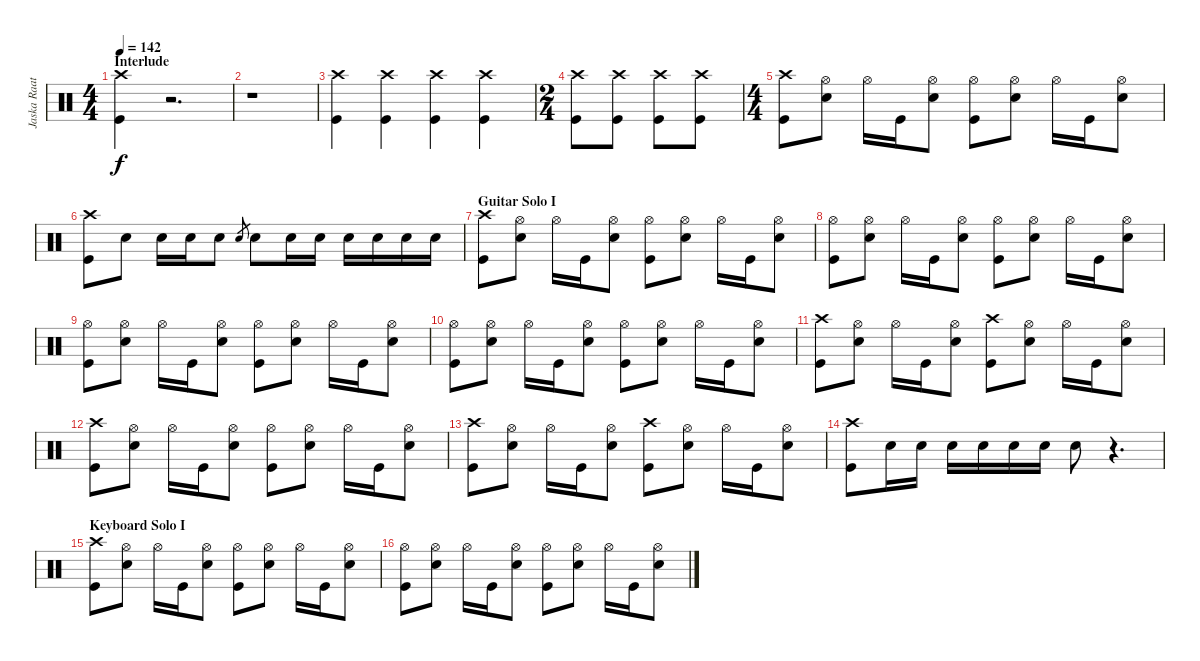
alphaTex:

\track ("Jaska Raatikainen" "Jaska Raat") {instrument percussion}
\staff {score}
\articulation defaults
\ts (4 4)
\section ("" "Interlude")
\tempo 142
\clef neutral
\ks c
("Crash high (hit)" "Kick (hit)").4{dy f} r.2{d} |
r.1 |
("Crash high (hit)" "Kick (hit)").4 ("Crash high (hit)" "Kick (hit)").4 ("Crash high (hit)" "Kick (hit)").4 ("Crash high (hit)" "Kick (hit)").4 |
\ts (2 4)
("Crash high (hit)" "Kick (hit)").8 ("Crash high (hit)" "Kick (hit)").8 ("Crash high (hit)" "Kick (hit)").8 ("Crash high (hit)" "Kick (hit)").8 |
\ts (4 4)
("Crash high (hit)" "Kick (hit)").8 ("Hi-Hat (open)" "Snare (hit) 2").8 "Hi-Hat (open)".16 "Kick (hit)".16 ("Hi-Hat (open)" "Snare (hit) 2").8 ("Hi-Hat (open)" "Kick (hit)").8 ("Hi-Hat (open)" "Snare (hit) 2").8 "Hi-Hat (open)".16 "Kick (hit)".16 ("Hi-Hat (open)" "Snare (hit) 2").8 |
("Crash high (hit)" "Kick (hit)").8 "Snare (hit) 2".8 "Snare (hit) 2".16 "Snare (hit) 2".16 "Snare (hit) 2".8 "Snare (hit) 2".8{gr} "Snare (hit) 2".8 "Snare (hit) 2".16 "Snare (hit) 2".16 "Snare (hit) 2".16 "Snare (hit) 2".16 "Snare (hit) 2".16 "Snare (hit) 2".16 |
\section ("" "Guitar Solo I")
("Crash high (hit)" "Kick (hit)").8 ("Hi-Hat (open)" "Snare (hit) 2").8 "Hi-Hat (open)".16 "Kick (hit)".16 ("Hi-Hat (open)" "Snare (hit) 2").8 ("Hi-Hat (open)" "Kick (hit)").8 ("Hi-Hat (open)" "Snare (hit) 2").8 "Hi-Hat (open)".16 "Kick (hit)".16 ("Hi-Hat (open)" "Snare (hit) 2").8 |
("Hi-Hat (open)" "Kick (hit)").8 ("Hi-Hat (open)" "Snare (hit) 2").8 "Hi-Hat (open)".16 "Kick (hit)".16 ("Hi-Hat (open)" "Snare (hit) 2").8 ("Hi-Hat (open)" "Kick (hit)").8 ("Hi-Hat (open)" "Snare (hit) 2").8 "Hi-Hat (open)".16 "Kick (hit)".16 ("Hi-Hat (open)" "Snare (hit) 2").8 |
("Hi-Hat (open)" "Kick (hit)").8 ("Hi-Hat (open)" "Snare (hit) 2").8 "Hi-Hat (open)".16 "Kick (hit)".16 ("Hi-Hat (open)" "Snare (hit) 2").8 ("Hi-Hat (open)" "Kick (hit)").8 ("Hi-Hat (open)" "Snare (hit) 2").8 "Hi-Hat (open)".16 "Kick (hit)".16 ("Hi-Hat (open)" "Snare (hit) 2").8 |
("Hi-Hat (open)" "Kick (hit)").8 ("Hi-Hat (open)" "Snare (hit) 2").8 "Hi-Hat (open)".16 "Kick (hit)".16 ("Hi-Hat (open)" "Snare (hit) 2").8 ("Hi-Hat (open)" "Kick (hit)").8 ("Hi-Hat (open)" "Snare (hit) 2").8 "Hi-Hat (open)".16 "Kick (hit)".16 ("Hi-Hat (open)" "Snare (hit) 2").8 |
("Crash high (hit)" "Kick (hit)").8 ("Hi-Hat (open)" "Snare (hit) 2").8 "Hi-Hat (open)".16 "Kick (hit)".16 ("Hi-Hat (open)" "Snare (hit) 2").8 ("Crash high (hit)" "Kick (hit)").8 ("Hi-Hat (open)" "Snare (hit) 2").8 "Hi-Hat (open)".16 "Kick (hit)".16 ("Hi-Hat (open)" "Snare (hit) 2").8 |
("Crash high (hit)" "Kick (hit)").8 ("Hi-Hat (open)" "Snare (hit) 2").8 "Hi-Hat (open)".16 "Kick (hit)".16 ("Hi-Hat (open)" "Snare (hit) 2").8 ("Hi-Hat (open)" "Kick (hit)").8 ("Hi-Hat (open)" "Snare (hit) 2").8 "Hi-Hat (open)".16 "Kick (hit)".16 ("Hi-Hat (open)" "Snare (hit) 2").8 |
("Crash high (hit)" "Kick (hit)").8 ("Hi-Hat (open)" "Snare (hit) 2").8 "Hi-Hat (open)".16 "Kick (hit)".16 ("Hi-Hat (open)" "Snare (hit) 2").8 ("Crash high (hit)" "Kick (hit)").8 ("Hi-Hat (open)" "Snare (hit) 2").8 "Hi-Hat (open)".16 "Kick (hit)".16 ("Hi-Hat (open)" "Snare (hit) 2").8 |
("Crash high (hit)" "Kick (hit)").8 "Snare (hit) 2".16 "Snare (hit) 2".16 "Snare (hit) 2".16 "Snare (hit) 2".16 "Snare (hit) 2".16 "Snare (hit) 2".16 "Snare (hit) 2".8 r.4{d} |
\section ("" "Keyboard Solo I")
("Crash high (hit)" "Kick (hit)").8 ("Hi-Hat (open)" "Snare (hit) 2").8 "Hi-Hat (open)".16 "Kick (hit)".16 ("Hi-Hat (open)" "Snare (hit) 2").8 ("Hi-Hat (open)" "Kick (hit)").8 ("Hi-Hat (open)" "Snare (hit) 2").8 "Hi-Hat (open)".16 "Kick (hit)".16 ("Hi-Hat (open)" "Snare (hit) 2").8 |
("Hi-Hat (open)" "Kick (hit)").8 ("Hi-Hat (open)" "Snare (hit) 2").8 "Hi-Hat (open)".16 "Kick (hit)".16 ("Hi-Hat (open)" "Snare (hit) 2").8 ("Hi-Hat (open)" "Kick (hit)").8 ("Hi-Hat (open)" "Snare (hit) 2").8 "Hi-Hat (open)".16 "Kick (hit)".16 ("Hi-Hat (open)" "Snare (hit) 2").8
